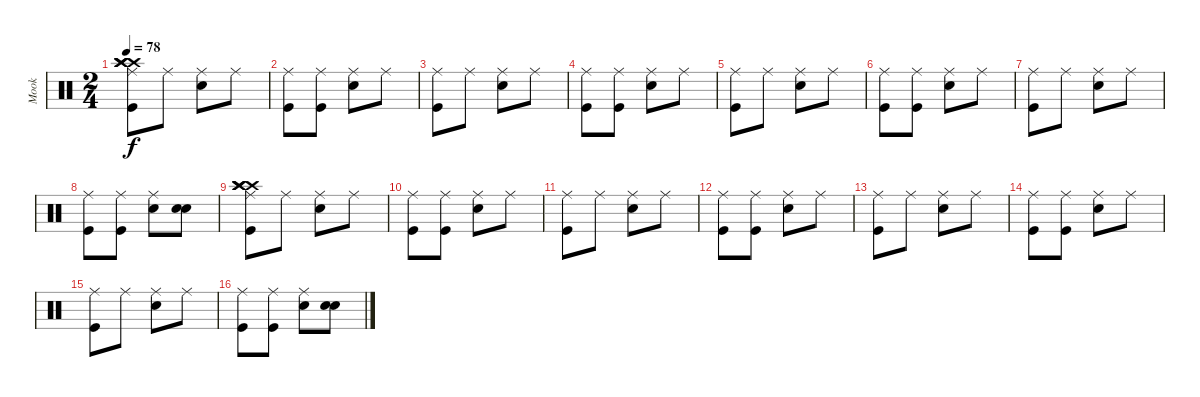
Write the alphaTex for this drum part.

\track ("Mook" "Mook") {instrument percussion}
\staff {score}
\articulation defaults
\ts (2 4)
\tempo 78
\clef neutral
\ks c
("Ride (middle)" "Kick (hit)" "Crash high (hit)" "Crash high (hit)" "Crash high (hit)" "Crash high (hit)").8{dy f} "Ride (middle)".8 ("Ride (middle)" "Metronome (bell)").8 "Ride (middle)".8 |
("Ride (middle)" "Kick (hit)").8 ("Ride (middle)" "Kick (hit)").8 ("Ride (middle)" "Metronome (bell)").8 "Ride (middle)".8 |
("Ride (middle)" "Kick (hit)").8 "Ride (middle)".8 ("Ride (middle)" "Metronome (bell)").8 "Ride (middle)".8 |
("Ride (middle)" "Kick (hit)").8 ("Ride (middle)" "Kick (hit)").8 ("Ride (middle)" "Metronome (bell)").8 "Ride (middle)".8 |
("Ride (middle)" "Kick (hit)").8 "Ride (middle)".8 ("Ride (middle)" "Metronome (bell)").8 "Ride (middle)".8 |
("Ride (middle)" "Kick (hit)").8 ("Ride (middle)" "Kick (hit)").8 ("Ride (middle)" "Metronome (bell)").8 "Ride (middle)".8 |
("Ride (middle)" "Kick (hit)").8 "Ride (middle)".8 ("Ride (middle)" "Metronome (bell)").8 "Ride (middle)".8 |
("Ride (middle)" "Kick (hit)").8 ("Ride (middle)" "Kick (hit)").8 ("Ride (middle)" "Metronome (bell)").8 ("Snare (hit)" "Metronome (bell)").8 |
("Ride (middle)" "Kick (hit)" "Crash high (hit)" "Crash high (hit)" "Crash high (hit)" "Crash high (hit)").8 "Ride (middle)".8 ("Ride (middle)" "Metronome (bell)").8 "Ride (middle)".8 |
("Ride (middle)" "Kick (hit)").8 ("Ride (middle)" "Kick (hit)").8 ("Ride (middle)" "Metronome (bell)").8 "Ride (middle)".8 |
("Ride (middle)" "Kick (hit)").8 "Ride (middle)".8 ("Ride (middle)" "Metronome (bell)").8 "Ride (middle)".8 |
("Ride (middle)" "Kick (hit)").8 ("Ride (middle)" "Kick (hit)").8 ("Ride (middle)" "Metronome (bell)").8 "Ride (middle)".8 |
("Ride (middle)" "Kick (hit)").8 "Ride (middle)".8 ("Ride (middle)" "Metronome (bell)").8 "Ride (middle)".8 |
("Ride (middle)" "Kick (hit)").8 ("Ride (middle)" "Kick (hit)").8 ("Ride (middle)" "Metronome (bell)").8 "Ride (middle)".8 |
("Ride (middle)" "Kick (hit)").8 "Ride (middle)".8 ("Ride (middle)" "Metronome (bell)").8 "Ride (middle)".8 |
("Ride (middle)" "Kick (hit)").8 ("Ride (middle)" "Kick (hit)").8 ("Ride (middle)" "Metronome (bell)").8 ("Snare (hit)" "Metronome (bell)").8
